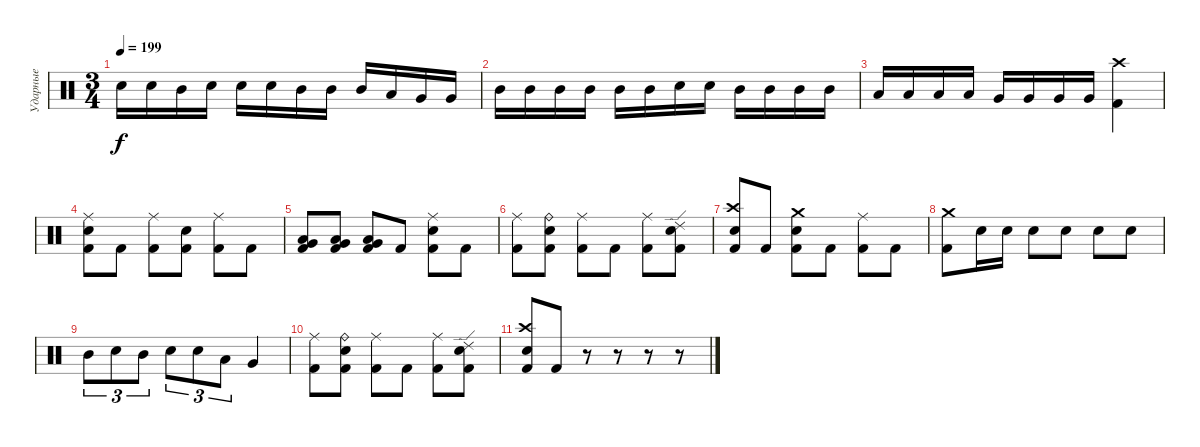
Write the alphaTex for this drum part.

\track ("Ударные" "Ударные") {instrument percussion}
\staff {score}
\articulation defaults
\ts (3 4)
\tempo 199
\clef neutral
\ks c "Snare (hit) 2".16{dy f volume 9} "Snare (hit) 2".16 "Mid Tom (hit)".16 "Snare (hit) 2".16 "Snare (hit) 2".16 "Snare (hit) 2".16 "Mid Tom (hit)".16 "Mid Tom (hit)".16 "Mid Tom (hit)".16 "Low Tom (hit)".16 "Very Low Tom (hit)".16 "Very Low Tom (hit)".16
|
"Mid Tom (hit)".16 "Mid Tom (hit)".16 "Mid Tom (hit)".16 "Mid Tom (hit)".16 "Mid Tom (hit)".16 "Mid Tom (hit)".16 "Snare (hit) 2".16 "Snare (hit) 2".16 "Mid Tom (hit)".16 "Mid Tom (hit)".16 "Mid Tom (hit)".16 "Mid Tom (hit)".16 |
"Low Tom (hit)".16 "Low Tom (hit)".16 "Low Tom (hit)".16 "Low Tom (hit)".16 "Very Low Tom (hit)".16 "Very Low Tom (hit)".16 "Very Low Tom (hit)".16 "Very Low Tom (hit)".16 ("Crash high (hit)" "Kick (hit) 2").4 |
("Ride (middle)" "Snare (hit) 2" "Kick (hit) 2").8 "Kick (hit) 2".8 ("Ride (middle)" "Kick (hit) 2").8 ("Snare (hit) 2" "Kick (hit) 2").8 ("Ride (middle)" "Kick (hit) 2").8 "Kick (hit) 2".8 |
("Low Tom (hit)" "Very Low Tom (hit)" "Kick (hit) 2").8{volume 6} ("Low Tom (hit)" "Very Low Tom (hit)" "Kick (hit) 2").8 ("Low Tom (hit)" "Very Low Tom (hit)" "Kick (hit) 2").8 "Kick (hit) 2".8 ("Ride (middle)" "Snare (hit) 2" "Kick (hit) 2").8 "Kick (hit) 2".8 |
("Ride (middle)" "Kick (hit) 2").8 ("Ride (bell)" "Snare (hit) 2" "Kick (hit) 2").8 ("Ride (middle)" "Kick (hit) 2").8 "Kick (hit) 2".8 ("Ride (middle)" "Kick (hit) 2").8 ("Ride (edge) 2" "Snare (hit) 2" "Kick (hit) 2").8 |
("Crash high (hit)" "Snare (hit) 2" "Kick (hit) 2").8 "Kick (hit) 2".8 ("Crash medium (hit)" "Snare (hit) 2" "Kick (hit) 2").8 "Kick (hit) 2".8 ("Ride (middle)" "Kick (hit) 2").8 "Kick (hit) 2".8 |
("Crash medium (hit)" "Kick (hit) 2").8 "Snare (hit) 2".16 "Snare (hit) 2".16 "Snare (hit) 2".8 "Snare (hit) 2".8 "Snare (hit) 2".8 "Snare (hit) 2".8 |
"Mid Tom (hit)".8{tu (3 2) volume 1} "Snare (hit) 2".8{tu (3 2)} "Mid Tom (hit)".8{tu (3 2)} "Snare (hit) 2".8{tu (3 2)} "Snare (hit) 2".8{tu (3 2)} "Low Tom (hit)".8{tu (3 2)} "Very Low Tom (hit)".4 |
("Ride (middle)" "Kick (hit) 2").8 ("Ride (bell)" "Snare (hit) 2" "Kick (hit) 2").8 ("Ride (middle)" "Kick (hit) 2").8 "Kick (hit) 2".8 ("Ride (middle)" "Kick (hit) 2").8 ("Ride (edge) 2" "Snare (hit) 2" "Kick (hit) 2").8 |
("Crash high (hit)" "Snare (hit) 2" "Kick (hit) 2").8 "Kick (hit) 2".8 r.8 r.8 r.8 r.8
